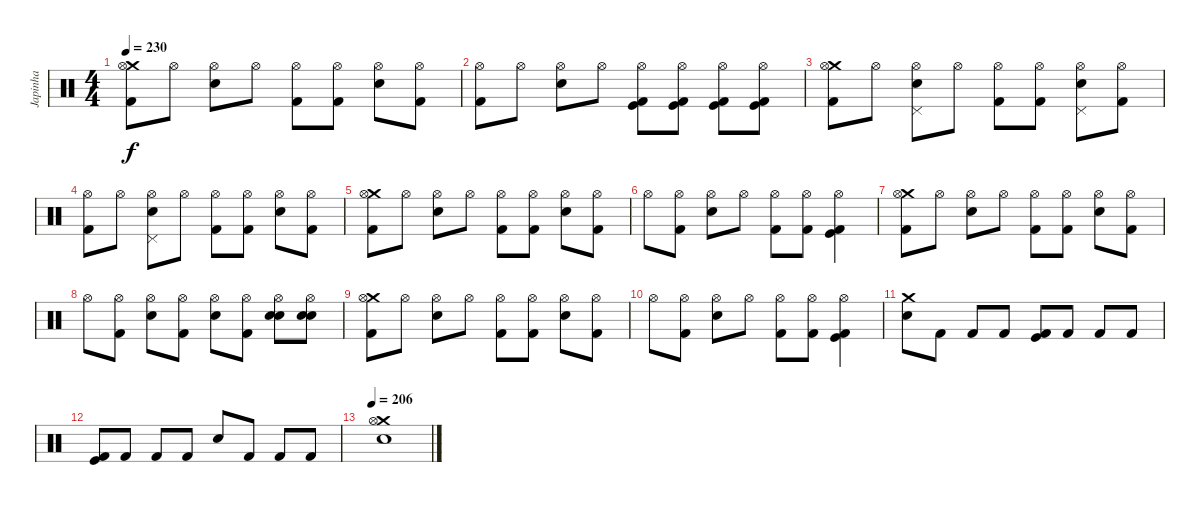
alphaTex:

\track ("Japinha" "Japinha") {instrument percussion}
\staff {score}
\articulation defaults
\ts (4 4)
\tempo 230
\clef neutral
\ks c
("Crash medium (hit)" "Hi-Hat (open)" "Kick (hit) 2").8{dy f} "Hi-Hat (open)".8 ("Hi-Hat (open)" "Snare (hit) 2").8 "Hi-Hat (open)".8 ("Hi-Hat (open)" "Kick (hit) 2").8 ("Hi-Hat (open)" "Kick (hit) 2").8 ("Hi-Hat (open)" "Snare (hit) 2").8 ("Hi-Hat (open)" "Kick (hit) 2").8 |
("Hi-Hat (open)" "Kick (hit) 2").8 "Hi-Hat (open)".8 ("Hi-Hat (open)" "Snare (hit) 2").8 "Hi-Hat (open)".8 ("Hi-Hat (open)" "Kick (hit) 2" "Kick (hit)").8 ("Hi-Hat (open)" "Kick (hit) 2" "Kick (hit)").8 ("Hi-Hat (open)" "Kick (hit) 2" "Kick (hit)").8 ("Hi-Hat (open)" "Kick (hit) 2" "Kick (hit)").8 |
("Crash medium (hit)" "Hi-Hat (open)" "Kick (hit) 2").8 "Hi-Hat (open)".8 ("Pedal Hi-Hat (hit)" "Hi-Hat (open)" "Snare (hit) 2").8 "Hi-Hat (open)".8 ("Hi-Hat (open)" "Kick (hit) 2").8 ("Hi-Hat (open)" "Kick (hit) 2").8 ("Pedal Hi-Hat (hit)" "Hi-Hat (open)" "Snare (hit) 2").8 ("Hi-Hat (open)" "Kick (hit) 2").8 |
("Hi-Hat (open)" "Kick (hit) 2").8 "Hi-Hat (open)".8 ("Pedal Hi-Hat (hit)" "Hi-Hat (open)" "Snare (hit) 2").8 "Hi-Hat (open)".8 ("Hi-Hat (open)" "Kick (hit) 2").8 ("Hi-Hat (open)" "Kick (hit) 2").8 ("Hi-Hat (open)" "Snare (hit) 2").8 ("Hi-Hat (open)" "Kick (hit) 2").8 |
("Crash medium (hit)" "Hi-Hat (open)" "Kick (hit) 2").8 "Hi-Hat (open)".8 ("Hi-Hat (open)" "Snare (hit) 2").8 "Hi-Hat (open)".8 ("Hi-Hat (open)" "Kick (hit) 2").8 ("Hi-Hat (open)" "Kick (hit) 2").8 ("Hi-Hat (open)" "Snare (hit) 2").8 ("Hi-Hat (open)" "Kick (hit) 2").8 |
"Hi-Hat (open)".8 ("Hi-Hat (open)" "Kick (hit) 2").8 ("Hi-Hat (open)" "Snare (hit) 2").8 "Hi-Hat (open)".8 ("Hi-Hat (open)" "Kick (hit) 2").8 ("Hi-Hat (open)" "Kick (hit) 2").8 ("Hi-Hat (open)" "Kick (hit) 2" "Kick (hit)").4 |
("Crash medium (hit)" "Hi-Hat (open)" "Kick (hit) 2").8 "Hi-Hat (open)".8 ("Hi-Hat (open)" "Snare (hit) 2").8 "Hi-Hat (open)".8 ("Hi-Hat (open)" "Kick (hit) 2").8 ("Hi-Hat (open)" "Kick (hit) 2").8 ("Hi-Hat (open)" "Snare (hit) 2").8 ("Hi-Hat (open)" "Kick (hit) 2").8 |
"Hi-Hat (open)".8 ("Hi-Hat (open)" "Kick (hit) 2").8 ("Hi-Hat (open)" "Snare (hit) 2").8 ("Hi-Hat (open)" "Kick (hit) 2").8 ("Hi-Hat (open)" "Snare (hit) 2").8 ("Hi-Hat (open)" "Kick (hit) 2").8 ("Hi-Hat (open)" "Snare (hit) 2" "Electric Snare (hit)").8 ("Hi-Hat (open)" "Snare (hit) 2" "Electric Snare (hit)").8 |
("Crash medium (hit)" "Hi-Hat (open)" "Kick (hit) 2").8 "Hi-Hat (open)".8 ("Hi-Hat (open)" "Snare (hit) 2").8 "Hi-Hat (open)".8 ("Hi-Hat (open)" "Kick (hit) 2").8 ("Hi-Hat (open)" "Kick (hit) 2").8 ("Hi-Hat (open)" "Snare (hit) 2").8 ("Hi-Hat (open)" "Kick (hit) 2").8 |
"Hi-Hat (open)".8 ("Hi-Hat (open)" "Kick (hit) 2").8 ("Hi-Hat (open)" "Snare (hit) 2").8 "Hi-Hat (open)".8 ("Hi-Hat (open)" "Kick (hit) 2").8 ("Hi-Hat (open)" "Kick (hit) 2").8 ("Hi-Hat (open)" "Kick (hit) 2" "Kick (hit)").4 |
("Crash medium (hit)" "Snare (hit) 2").8 "Kick (hit) 2".8 "Kick (hit) 2".8 "Kick (hit) 2".8 ("Kick (hit) 2" "Kick (hit)").8 "Kick (hit) 2".8 "Kick (hit) 2".8 "Kick (hit) 2".8 |
("Kick (hit) 2" "Kick (hit)").8 "Kick (hit) 2".8 "Kick (hit) 2".8 "Kick (hit) 2".8 "Snare (hit) 2".8 "Kick (hit) 2".8 "Kick (hit) 2".8 "Kick (hit) 2".8 |
\tempo 206
("Crash medium (hit)" "Snare (hit) 2" "Hi-Hat (open)").1
